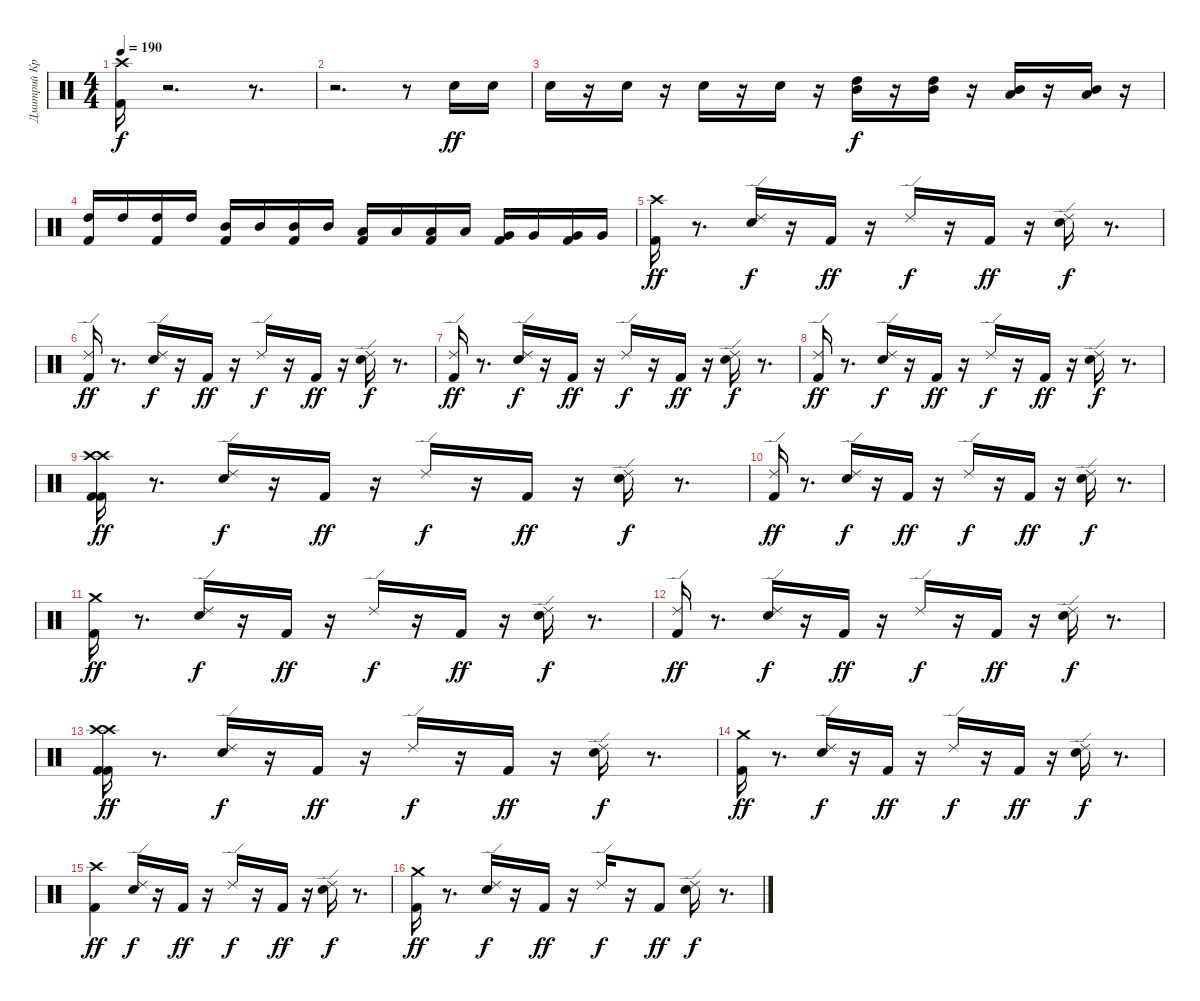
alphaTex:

\track ("Дмитрий Кривенков" "Дмитрий Кр") {instrument percussion}
\staff {score}
\articulation defaults
\ts (4 4)
\tempo 190
\clef neutral
\ks c
("Crash high (hit)" "Kick (hit) 2").16{dy f} r.2{d} r.8{d} |
r.2{d} r.8 "Snare (hit) 2".16{dy ff} "Snare (hit) 2".16 |
"Snare (hit) 2".16 r.16 "Snare (hit) 2".16 r.16 "Snare (hit) 2".16 r.16 "Snare (hit) 2".16 r.16 ("Mid Tom (hit)" "High Tom (hit)").16{dy f} r.16 ("Mid Tom (hit)" "High Tom (hit)").16 r.16 ("Low Tom (hit)" "Mid Tom (hit)").16 r.16 ("Low Tom (hit)" "Mid Tom (hit)").16 r.16 |
("High Tom (hit)" "Kick (hit) 2").16 "High Tom (hit)".16 ("High Tom (hit)" "Kick (hit) 2").16 "High Tom (hit)".16 ("Mid Tom (hit)" "Kick (hit) 2").16 "Mid Tom (hit)".16 ("Mid Tom (hit)" "Kick (hit) 2").16 "Mid Tom (hit)".16 ("Low Tom (hit)" "Kick (hit) 2").16 "Low Tom (hit)".16 ("Low Tom (hit)" "Kick (hit) 2").16 "Low Tom (hit)".16 ("Very Low Tom (hit)" "Kick (hit) 2").16 "Very Low Tom (hit)".16 ("Very Low Tom (hit)" "Kick (hit) 2").16 "Very Low Tom (hit)".16 |
("Crash high (hit)" "Kick (hit) 2").16{dy ff} r.8{d} ("Ride (edge) 2" "Electric Snare (hit)").16{dy f} r.16 "Kick (hit) 2".16{dy ff} r.16 "Ride (edge) 2".16{dy f} r.16 "Kick (hit) 2".16{dy ff} r.16 ("Ride (edge) 2" "Electric Snare (hit)").16{dy f} r.8{d} |
("Kick (hit) 2" "Ride (edge) 2").16{dy ff} r.8{d} ("Electric Snare (hit)" "Ride (edge) 2").16{dy f} r.16 "Kick (hit) 2".16{dy ff} r.16 "Ride (edge) 2".16{dy f} r.16 "Kick (hit) 2".16{dy ff} r.16 ("Electric Snare (hit)" "Ride (edge) 2").16{dy f} r.8{d} |
("Ride (edge) 2" "Kick (hit) 2").16{dy ff} r.8{d} ("Ride (edge) 2" "Electric Snare (hit)").16{dy f} r.16 "Kick (hit) 2".16{dy ff} r.16 "Ride (edge) 2".16{dy f} r.16 "Kick (hit) 2".16{dy ff} r.16 ("Ride (edge) 2" "Electric Snare (hit)").16{dy f} r.8{d} |
("Ride (edge) 2" "Kick (hit) 2").16{dy ff} r.8{d} ("Ride (edge) 2" "Electric Snare (hit)").16{dy f} r.16 "Kick (hit) 2".16{dy ff} r.16 "Ride (edge) 2".16{dy f} r.16 "Kick (hit) 2".16{dy ff} r.16 ("Ride (edge) 2" "Electric Snare (hit)").16{dy f} r.8{d} |
("Crash high (hit)" "Kick (hit) 2" "Crash high (hit)" "Kick (hit) 2").16{dy ff} r.8{d} ("Ride (edge) 2" "Electric Snare (hit)").16{dy f} r.16 "Kick (hit) 2".16{dy ff} r.16 "Ride (edge) 2".16{dy f} r.16 "Kick (hit) 2".16{dy ff} r.16 ("Ride (edge) 2" "Electric Snare (hit)").16{dy f} r.8{d} |
("Kick (hit) 2" "Ride (edge) 2").16{dy ff} r.8{d} ("Electric Snare (hit)" "Ride (edge) 2").16{dy f} r.16 "Kick (hit) 2".16{dy ff} r.16 "Ride (edge) 2".16{dy f} r.16 "Kick (hit) 2".16{dy ff} r.16 ("Electric Snare (hit)" "Ride (edge) 2").16{dy f} r.8{d} |
("Crash medium (hit)" "Kick (hit) 2").16{dy ff} r.8{d} ("Ride (edge) 2" "Electric Snare (hit)").16{dy f} r.16 "Kick (hit) 2".16{dy ff} r.16 "Ride (edge) 2".16{dy f} r.16 "Kick (hit) 2".16{dy ff} r.16 ("Ride (edge) 2" "Electric Snare (hit)").16{dy f} r.8{d} |
("Ride (edge) 2" "Kick (hit) 2").16{dy ff} r.8{d} ("Ride (edge) 2" "Electric Snare (hit)").16{dy f} r.16 "Kick (hit) 2".16{dy ff} r.16 "Ride (edge) 2".16{dy f} r.16 "Kick (hit) 2".16{dy ff} r.16 ("Ride (edge) 2" "Electric Snare (hit)").16{dy f} r.8{d} |
("Crash high (hit)" "Kick (hit) 2" "Crash high (hit)" "Kick (hit) 2").16{dy ff} r.8{d} ("Ride (edge) 2" "Electric Snare (hit)").16{dy f} r.16 "Kick (hit) 2".16{dy ff} r.16 "Ride (edge) 2".16{dy f} r.16 "Kick (hit) 2".16{dy ff} r.16 ("Ride (edge) 2" "Electric Snare (hit)").16{dy f} r.8{d} |
("Kick (hit) 2" "Crash medium (hit)").16{dy ff} r.8{d} ("Electric Snare (hit)" "Ride (edge) 2").16{dy f} r.16 "Kick (hit) 2".16{dy ff} r.16 "Ride (edge) 2".16{dy f} r.16 "Kick (hit) 2".16{dy ff} r.16 ("Electric Snare (hit)" "Ride (edge) 2").16{dy f} r.8{d} |
("Crash high (hit)" "Kick (hit) 2").4{dy ff} ("Electric Snare (hit)" "Ride (edge) 2").16{dy f} r.16 "Kick (hit) 2".16{dy ff} r.16 "Ride (edge) 2".16{dy f} r.16 "Kick (hit) 2".16{dy ff} r.16 ("Electric Snare (hit)" "Ride (edge) 2").16{dy f} r.8{d} |
("Kick (hit) 2" "Crash medium (hit)").16{dy ff} r.8{d} ("Ride (edge) 2" "Electric Snare (hit)").16{dy f} r.16 "Kick (hit) 2".16{dy ff} r.16 "Ride (edge) 2".16{dy f} r.16 "Kick (hit) 2".8{dy ff} ("Electric Snare (hit)" "Ride (edge) 2").16{dy f} r.8{d}
